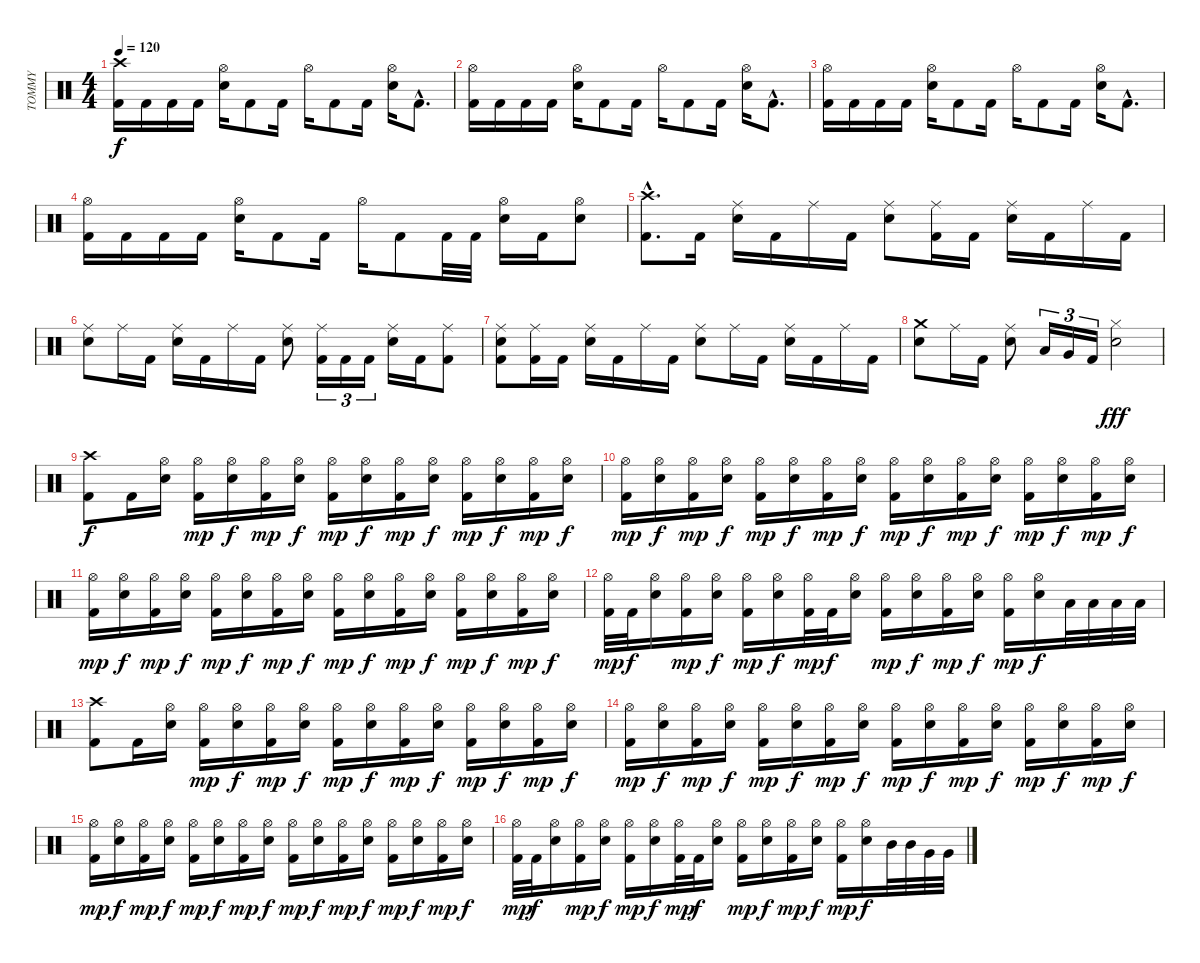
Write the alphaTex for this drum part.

\track ("TOMMY" "TOMMY") {instrument percussion}
\staff {score}
\articulation defaults
\ts (4 4)
\tempo 120
\clef neutral
\ks c
("Kick (hit) 2" "Crash high (hit)").16{dy f} "Kick (hit) 2".16 "Kick (hit) 2".16 "Kick (hit) 2".16 ("Snare (hit) 2" "Hi-Hat (open)").16 "Kick (hit) 2".8 "Kick (hit) 2".16 "Hi-Hat (open)".16 "Kick (hit) 2".8 "Kick (hit) 2".16 ("Snare (hit) 2" "Hi-Hat (open)").16 "Kick (hit) 2"{hac}.8{d} |
("Kick (hit) 2" "Hi-Hat (open)").16 "Kick (hit) 2".16 "Kick (hit) 2".16 "Kick (hit) 2".16 ("Snare (hit) 2" "Hi-Hat (open)").16 "Kick (hit) 2".8 "Kick (hit) 2".16 "Hi-Hat (open)".16 "Kick (hit) 2".8 "Kick (hit) 2".16 ("Snare (hit) 2" "Hi-Hat (open)").16 "Kick (hit) 2"{hac}.8{d} |
("Kick (hit) 2" "Hi-Hat (open)").16 "Kick (hit) 2".16 "Kick (hit) 2".16 "Kick (hit) 2".16 ("Snare (hit) 2" "Hi-Hat (open)").16 "Kick (hit) 2".8 "Kick (hit) 2".16 "Hi-Hat (open)".16 "Kick (hit) 2".8 "Kick (hit) 2".16 ("Snare (hit) 2" "Hi-Hat (open)").16 "Kick (hit) 2"{hac}.8{d} |
("Kick (hit) 2" "Hi-Hat (open)").16 "Kick (hit) 2".16 "Kick (hit) 2".16 "Kick (hit) 2".16 ("Snare (hit) 2" "Hi-Hat (open)").16 "Kick (hit) 2".8 "Kick (hit) 2".16 "Hi-Hat (open)".16 "Kick (hit) 2".8 "Kick (hit) 2".32 "Kick (hit) 2".32 ("Snare (hit) 2" "Hi-Hat (open)").16 "Kick (hit) 2".16 ("Snare (hit) 2" "Hi-Hat (open)").8 |
("Kick (hit) 2"{hac} "Crash high (hit)"{hac}).8{d} "Kick (hit) 2".16 ("Snare (hit) 2" "Ride (middle)").16 "Kick (hit) 2".16 "Ride (middle)".16 "Kick (hit) 2".16 ("Snare (hit) 2" "Ride (middle)").8 ("Kick (hit) 2" "Ride (middle)").16 "Kick (hit) 2".16 ("Snare (hit) 2" "Ride (middle)").16 "Kick (hit) 2".16 "Ride (middle)".16 "Kick (hit) 2".16 |
("Snare (hit) 2" "Ride (middle)").8 "Ride (middle)".16 "Kick (hit) 2".16 ("Snare (hit) 2" "Ride (middle)").16 "Kick (hit) 2".16 "Ride (middle)".16 "Kick (hit) 2".16 ("Snare (hit) 2" "Ride (middle)").8 ("Kick (hit) 2" "Ride (middle)").16{tu (3 2)} "Kick (hit) 2".16{tu (3 2)} "Kick (hit) 2".16{tu (3 2)} ("Snare (hit) 2" "Ride (middle)").16 "Kick (hit) 2".16 ("Kick (hit) 2" "Ride (middle)").8 |
("Snare (hit) 2" "Kick (hit) 2" "Ride (middle)").8 ("Kick (hit) 2" "Ride (middle)").16 "Kick (hit) 2".16 ("Snare (hit) 2" "Ride (middle)").16 "Kick (hit) 2".16 "Ride (middle)".16 "Kick (hit) 2".16 ("Snare (hit) 2" "Ride (middle)").8 "Ride (middle)".16 "Kick (hit) 2".16 ("Snare (hit) 2" "Ride (middle)").16 "Kick (hit) 2".16 "Ride (middle)".16 "Kick (hit) 2".16 |
("Snare (hit) 2" "Crash medium (hit)").8 "Ride (middle)".16 "Kick (hit) 2".16 ("Snare (hit) 2" "Ride (middle)").8 "Low Floor Tom (hit)".16{tu (3 2)} "Very Low Tom (hit)".16{tu (3 2)} "Kick (hit) 2".16{tu (3 2)} ("Snare (hit) 2" "Hi-Hat (closed)").2{dy fff} |
("Kick (hit) 2" "Crash high (hit)").8{dy f} "Kick (hit) 2".16 ("Snare (hit) 2" "Hi-Hat (open)").16 ("Kick (hit) 2" "Hi-Hat (open)").16{dy mp} ("Snare (hit) 2" "Hi-Hat (open)").16{dy f} ("Kick (hit) 2" "Hi-Hat (open)").16{dy mp} ("Snare (hit) 2" "Hi-Hat (open)").16{dy f} ("Kick (hit) 2" "Hi-Hat (open)").16{dy mp} ("Snare (hit) 2" "Hi-Hat (open)").16{dy f} ("Kick (hit) 2" "Hi-Hat (open)").16{dy mp} ("Snare (hit) 2" "Hi-Hat (open)").16{dy f} ("Kick (hit) 2" "Hi-Hat (open)").16{dy mp} ("Snare (hit) 2" "Hi-Hat (open)").16{dy f} ("Kick (hit) 2" "Hi-Hat (open)").16{dy mp} ("Snare (hit) 2" "Hi-Hat (open)").16{dy f} |
("Kick (hit) 2" "Hi-Hat (open)").16{dy mp} ("Snare (hit) 2" "Hi-Hat (open)").16{dy f} ("Kick (hit) 2" "Hi-Hat (open)").16{dy mp} ("Snare (hit) 2" "Hi-Hat (open)").16{dy f} ("Kick (hit) 2" "Hi-Hat (open)").16{dy mp} ("Snare (hit) 2" "Hi-Hat (open)").16{dy f} ("Kick (hit) 2" "Hi-Hat (open)").16{dy mp} ("Snare (hit) 2" "Hi-Hat (open)").16{dy f} ("Kick (hit) 2" "Hi-Hat (open)").16{dy mp} ("Snare (hit) 2" "Hi-Hat (open)").16{dy f} ("Kick (hit) 2" "Hi-Hat (open)").16{dy mp} ("Snare (hit) 2" "Hi-Hat (open)").16{dy f} ("Kick (hit) 2" "Hi-Hat (open)").16{dy mp} ("Snare (hit) 2" "Hi-Hat (open)").16{dy f} ("Kick (hit) 2" "Hi-Hat (open)").16{dy mp} ("Snare (hit) 2" "Hi-Hat (open)").16{dy f} |
("Kick (hit) 2" "Hi-Hat (open)").16{dy mp} ("Snare (hit) 2" "Hi-Hat (open)").16{dy f} ("Kick (hit) 2" "Hi-Hat (open)").16{dy mp} ("Snare (hit) 2" "Hi-Hat (open)").16{dy f} ("Kick (hit) 2" "Hi-Hat (open)").16{dy mp} ("Snare (hit) 2" "Hi-Hat (open)").16{dy f} ("Kick (hit) 2" "Hi-Hat (open)").16{dy mp} ("Snare (hit) 2" "Hi-Hat (open)").16{dy f} ("Kick (hit) 2" "Hi-Hat (open)").16{dy mp} ("Snare (hit) 2" "Hi-Hat (open)").16{dy f} ("Kick (hit) 2" "Hi-Hat (open)").16{dy mp} ("Snare (hit) 2" "Hi-Hat (open)").16{dy f} ("Kick (hit) 2" "Hi-Hat (open)").16{dy mp} ("Snare (hit) 2" "Hi-Hat (open)").16{dy f} ("Kick (hit) 2" "Hi-Hat (open)").16{dy mp} ("Snare (hit) 2" "Hi-Hat (open)").16{dy f} |
("Kick (hit) 2" "Hi-Hat (open)").32{dy mp} "Kick (hit) 2".32{dy f} ("Snare (hit) 2" "Hi-Hat (open)").16 ("Kick (hit) 2" "Hi-Hat (open)").16{dy mp} ("Snare (hit) 2" "Hi-Hat (open)").16{dy f} ("Kick (hit) 2" "Hi-Hat (open)").16{dy mp} ("Snare (hit) 2" "Hi-Hat (open)").16{dy f} ("Kick (hit) 2" "Hi-Hat (open)").32{dy mp} "Kick (hit) 2".32{dy f} ("Snare (hit) 2" "Hi-Hat (open)").16 ("Kick (hit) 2" "Hi-Hat (open)").16{dy mp} ("Snare (hit) 2" "Hi-Hat (open)").16{dy f} ("Kick (hit) 2" "Hi-Hat (open)").16{dy mp} ("Snare (hit) 2" "Hi-Hat (open)").16{dy f} ("Kick (hit) 2" "Hi-Hat (open)").16{dy mp} ("Snare (hit) 2" "Hi-Hat (open)").16{dy f} "Low Floor Tom (hit)".32 "Low Floor Tom (hit)".32 "Low Floor Tom (hit)".32 "Low Floor Tom (hit)".32 |
("Kick (hit) 2" "Crash high (hit)").8 "Kick (hit) 2".16 ("Snare (hit) 2" "Hi-Hat (open)").16 ("Kick (hit) 2" "Hi-Hat (open)").16{dy mp} ("Snare (hit) 2" "Hi-Hat (open)").16{dy f} ("Kick (hit) 2" "Hi-Hat (open)").16{dy mp} ("Snare (hit) 2" "Hi-Hat (open)").16{dy f} ("Kick (hit) 2" "Hi-Hat (open)").16{dy mp} ("Snare (hit) 2" "Hi-Hat (open)").16{dy f} ("Kick (hit) 2" "Hi-Hat (open)").16{dy mp} ("Snare (hit) 2" "Hi-Hat (open)").16{dy f} ("Kick (hit) 2" "Hi-Hat (open)").16{dy mp} ("Snare (hit) 2" "Hi-Hat (open)").16{dy f} ("Kick (hit) 2" "Hi-Hat (open)").16{dy mp} ("Snare (hit) 2" "Hi-Hat (open)").16{dy f} |
("Kick (hit) 2" "Hi-Hat (open)").16{dy mp} ("Snare (hit) 2" "Hi-Hat (open)").16{dy f} ("Kick (hit) 2" "Hi-Hat (open)").16{dy mp} ("Snare (hit) 2" "Hi-Hat (open)").16{dy f} ("Kick (hit) 2" "Hi-Hat (open)").16{dy mp} ("Snare (hit) 2" "Hi-Hat (open)").16{dy f} ("Kick (hit) 2" "Hi-Hat (open)").16{dy mp} ("Snare (hit) 2" "Hi-Hat (open)").16{dy f} ("Kick (hit) 2" "Hi-Hat (open)").16{dy mp} ("Snare (hit) 2" "Hi-Hat (open)").16{dy f} ("Kick (hit) 2" "Hi-Hat (open)").16{dy mp} ("Snare (hit) 2" "Hi-Hat (open)").16{dy f} ("Kick (hit) 2" "Hi-Hat (open)").16{dy mp} ("Snare (hit) 2" "Hi-Hat (open)").16{dy f} ("Kick (hit) 2" "Hi-Hat (open)").16{dy mp} ("Snare (hit) 2" "Hi-Hat (open)").16{dy f} |
("Kick (hit) 2" "Hi-Hat (open)").16{dy mp} ("Snare (hit) 2" "Hi-Hat (open)").16{dy f} ("Kick (hit) 2" "Hi-Hat (open)").16{dy mp} ("Snare (hit) 2" "Hi-Hat (open)").16{dy f} ("Kick (hit) 2" "Hi-Hat (open)").16{dy mp} ("Snare (hit) 2" "Hi-Hat (open)").16{dy f} ("Kick (hit) 2" "Hi-Hat (open)").16{dy mp} ("Snare (hit) 2" "Hi-Hat (open)").16{dy f} ("Kick (hit) 2" "Hi-Hat (open)").16{dy mp} ("Snare (hit) 2" "Hi-Hat (open)").16{dy f} ("Kick (hit) 2" "Hi-Hat (open)").16{dy mp} ("Snare (hit) 2" "Hi-Hat (open)").16{dy f} ("Kick (hit) 2" "Hi-Hat (open)").16{dy mp} ("Snare (hit) 2" "Hi-Hat (open)").16{dy f} ("Kick (hit) 2" "Hi-Hat (open)").16{dy mp} ("Snare (hit) 2" "Hi-Hat (open)").16{dy f} |
("Kick (hit) 2" "Hi-Hat (open)").32{dy mp} "Kick (hit) 2".32{dy f} ("Snare (hit) 2" "Hi-Hat (open)").16 ("Kick (hit) 2" "Hi-Hat (open)").16{dy mp} ("Snare (hit) 2" "Hi-Hat (open)").16{dy f} ("Kick (hit) 2" "Hi-Hat (open)").16{dy mp} ("Snare (hit) 2" "Hi-Hat (open)").16{dy f} ("Kick (hit) 2" "Hi-Hat (open)").32{dy mp} "Kick (hit) 2".32{dy f} ("Snare (hit) 2" "Hi-Hat (open)").16 ("Kick (hit) 2" "Hi-Hat (open)").16{dy mp} ("Snare (hit) 2" "Hi-Hat (open)").16{dy f} ("Kick (hit) 2" "Hi-Hat (open)").16{dy mp} ("Snare (hit) 2" "Hi-Hat (open)").16{dy f} ("Kick (hit) 2" "Hi-Hat (open)").16{dy mp} ("Snare (hit) 2" "Hi-Hat (open)").16{dy f} "Mid Tom (hit)".32 "Mid Tom (hit)".32 "Very Low Tom (hit)".32 "Very Low Tom (hit)".32
